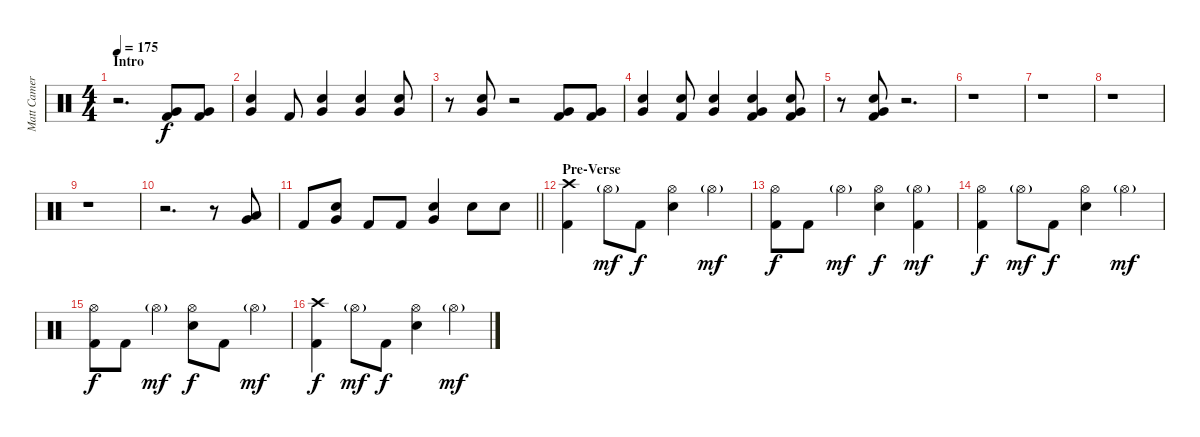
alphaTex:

\track ("Matt Cameron Drum" "Matt Camer") {instrument percussion}
\staff {score}
\articulation defaults
\ts (4 4)
\section ("" "Intro")
\tempo 175
\clef neutral
\ks c
r.2{d dy f} ("Very Low Tom (hit)" "Kick (hit) 2").8 ("Very Low Tom (hit)" "Kick (hit) 2").8 |
("Very Low Tom (hit)" "Electric Snare (hit)").4 "Kick (hit) 2".8 ("Very Low Tom (hit)" "Electric Snare (hit)").4 ("Very Low Tom (hit)" "Electric Snare (hit)").4 ("Very Low Tom (hit)" "Electric Snare (hit)").8 |
r.8 ("Very Low Tom (hit)" "Electric Snare (hit)").8 r.2 ("Very Low Tom (hit)" "Kick (hit) 2").8 ("Very Low Tom (hit)" "Kick (hit) 2").8 |
("Very Low Tom (hit)" "Electric Snare (hit)").4 ("Electric Snare (hit)" "Kick (hit) 2").8 ("Very Low Tom (hit)" "Electric Snare (hit)").4 ("Very Low Tom (hit)" "Electric Snare (hit)" "Kick (hit) 2").4 ("Very Low Tom (hit)" "Electric Snare (hit)" "Kick (hit) 2").8 |
r.8 ("Very Low Tom (hit)" "Electric Snare (hit)" "Kick (hit) 2").8 r.2{d} |
r.1 |
r.1 |
r.1 |
r.1 |
r.2{d} r.8 ("Low Tom (hit)" "Very Low Tom (hit)").8 |
\barLineRight lightlight "Kick (hit) 2".8
("Very Low Tom (hit)" "Electric Snare (hit)").8 "Kick (hit) 2".8 "Kick (hit) 2".8 ("Very Low Tom (hit)" "Electric Snare (hit)").4 "Electric Snare (hit)".8 "Electric Snare (hit)".8 |
\section ("" "Pre-Verse")
("Crash high (hit)" "Kick (hit) 2").4 "Hi-Hat (open)"{g}.8{dy mf} "Kick (hit) 2".8{dy f} ("Hi-Hat (open)" "Electric Snare (hit)").4 "Hi-Hat (open)"{g}.4{dy mf} |
("Hi-Hat (open)" "Kick (hit) 2").8{dy f} "Kick (hit) 2".8 "Hi-Hat (open)"{g}.4{dy mf} ("Hi-Hat (open)" "Electric Snare (hit)").4{dy f} ("Hi-Hat (open)"{g} "Kick (hit) 2").4{dy mf} |
("Hi-Hat (open)" "Kick (hit) 2").4{dy f} "Hi-Hat (open)"{g}.8{dy mf} "Kick (hit) 2".8{dy f} ("Hi-Hat (open)" "Electric Snare (hit)").4 "Hi-Hat (open)"{g}.4{dy mf} |
("Hi-Hat (open)" "Kick (hit) 2").8{dy f} "Kick (hit) 2".8 "Hi-Hat (open)"{g}.4{dy mf} ("Hi-Hat (open)" "Electric Snare (hit)").8{dy f} "Kick (hit) 2".8 "Hi-Hat (open)"{g}.4{dy mf} |
("Crash high (hit)" "Kick (hit) 2").4{dy f} "Hi-Hat (open)"{g}.8{dy mf} "Kick (hit) 2".8{dy f} ("Hi-Hat (open)" "Electric Snare (hit)").4 "Hi-Hat (open)"{g}.4{dy mf}
